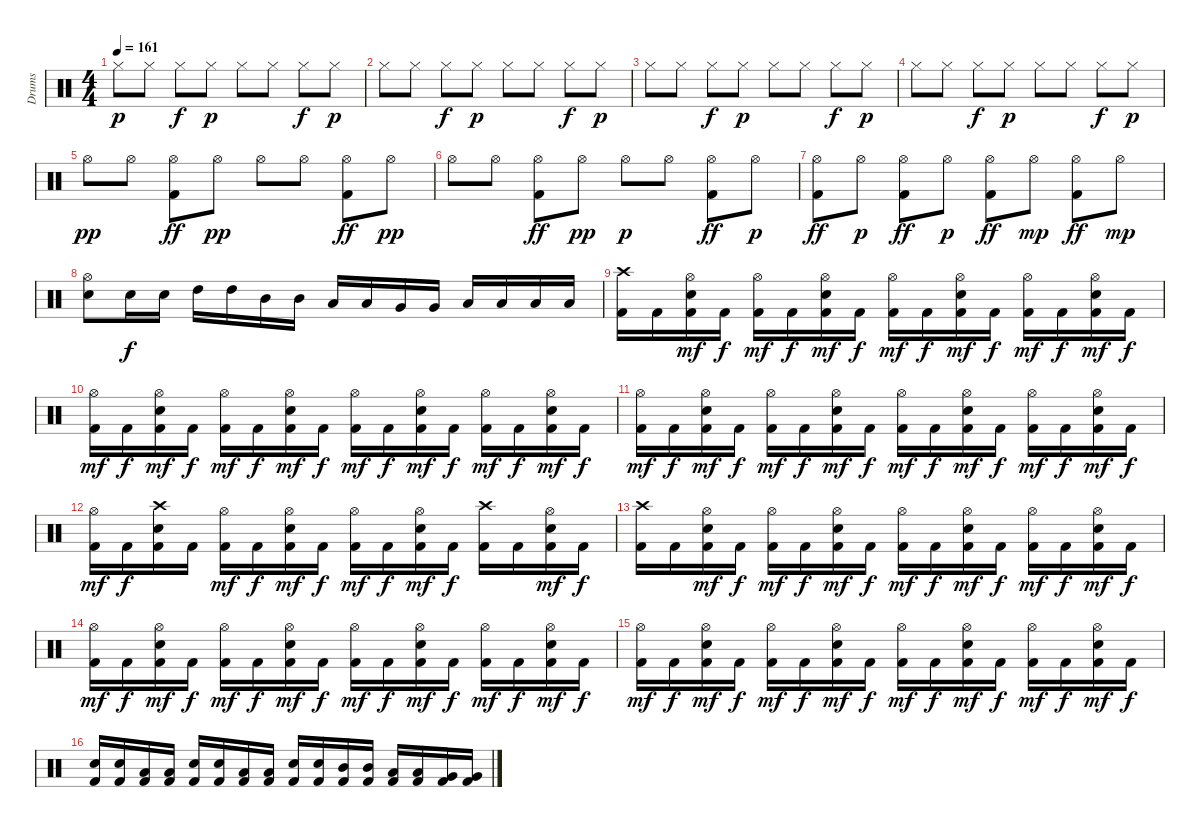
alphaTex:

\track ("Drums" "Drums") {instrument percussion}
\staff {score}
\articulation defaults
\ts (4 4)
\tempo 161
\clef neutral
\ks c "Hi-Hat (closed)".8{dy p} "Hi-Hat (closed)".8 "Hi-Hat (closed)".8{dy f} "Hi-Hat (closed)".8{dy p} "Hi-Hat (closed)".8 "Hi-Hat (closed)".8 "Hi-Hat (closed)".8{dy f} "Hi-Hat (closed)".8{dy p}
|
"Hi-Hat (closed)".8 "Hi-Hat (closed)".8 "Hi-Hat (closed)".8{dy f} "Hi-Hat (closed)".8{dy p} "Hi-Hat (closed)".8 "Hi-Hat (closed)".8 "Hi-Hat (closed)".8{dy f} "Hi-Hat (closed)".8{dy p} |
"Hi-Hat (closed)".8 "Hi-Hat (closed)".8 "Hi-Hat (closed)".8{dy f} "Hi-Hat (closed)".8{dy p} "Hi-Hat (closed)".8 "Hi-Hat (closed)".8 "Hi-Hat (closed)".8{dy f} "Hi-Hat (closed)".8{dy p} |
"Hi-Hat (closed)".8 "Hi-Hat (closed)".8 "Hi-Hat (closed)".8{dy f} "Hi-Hat (closed)".8{dy p} "Hi-Hat (closed)".8 "Hi-Hat (closed)".8 "Hi-Hat (closed)".8{dy f} "Hi-Hat (closed)".8{dy p} |
"Hi-Hat (open)".8{dy pp} "Hi-Hat (open)".8 ("Hi-Hat (open)" "Kick (hit) 2").8{dy ff} "Hi-Hat (open)".8{dy pp} "Hi-Hat (open)".8 "Hi-Hat (open)".8 ("Hi-Hat (open)" "Kick (hit) 2").8{dy ff} "Hi-Hat (open)".8{dy pp} |
"Hi-Hat (open)".8 "Hi-Hat (open)".8 ("Hi-Hat (open)" "Kick (hit) 2").8{dy ff} "Hi-Hat (open)".8{dy pp} "Hi-Hat (open)".8{dy p} "Hi-Hat (open)".8 ("Hi-Hat (open)" "Kick (hit) 2").8{dy ff} "Hi-Hat (open)".8{dy p} |
("Hi-Hat (open)" "Kick (hit) 2").8{dy ff} "Hi-Hat (open)".8{dy p} ("Hi-Hat (open)" "Kick (hit) 2").8{dy ff} "Hi-Hat (open)".8{dy p} ("Hi-Hat (open)" "Kick (hit) 2").8{dy ff} "Hi-Hat (open)".8{dy mp} ("Hi-Hat (open)" "Kick (hit) 2").8{dy ff} "Hi-Hat (open)".8{dy mp} |
("Hi-Hat (open)" "Electric Snare (hit)").8 "Electric Snare (hit)".16{dy f} "Electric Snare (hit)".16 "High Tom (hit)".16 "High Tom (hit)".16 "Mid Tom (hit)".16 "Mid Tom (hit)".16 "Low Tom (hit)".16 "Low Tom (hit)".16 "Very Low Tom (hit)".16 "Very Low Tom (hit)".16 "Low Floor Tom (hit)".16 "Low Floor Tom (hit)".16 "Low Floor Tom (hit)".16 "Low Floor Tom (hit)".16 |
("Crash high (hit)" "Kick (hit) 2").16 "Kick (hit) 2".16 ("Hi-Hat (open)" "Electric Snare (hit)" "Kick (hit) 2").16{dy mf} "Kick (hit) 2".16{dy f} ("Hi-Hat (open)" "Kick (hit) 2").16{dy mf} "Kick (hit) 2".16{dy f} ("Hi-Hat (open)" "Electric Snare (hit)" "Kick (hit) 2").16{dy mf} "Kick (hit) 2".16{dy f} ("Hi-Hat (open)" "Kick (hit) 2").16{dy mf} "Kick (hit) 2".16{dy f} ("Hi-Hat (open)" "Electric Snare (hit)" "Kick (hit) 2").16{dy mf} "Kick (hit) 2".16{dy f} ("Hi-Hat (open)" "Kick (hit) 2").16{dy mf} "Kick (hit) 2".16{dy f} ("Hi-Hat (open)" "Electric Snare (hit)" "Kick (hit) 2").16{dy mf} "Kick (hit) 2".16{dy f} |
("Hi-Hat (open)" "Kick (hit) 2").16{dy mf} "Kick (hit) 2".16{dy f} ("Hi-Hat (open)" "Electric Snare (hit)" "Kick (hit) 2").16{dy mf} "Kick (hit) 2".16{dy f} ("Hi-Hat (open)" "Kick (hit) 2").16{dy mf} "Kick (hit) 2".16{dy f} ("Hi-Hat (open)" "Electric Snare (hit)" "Kick (hit) 2").16{dy mf} "Kick (hit) 2".16{dy f} ("Hi-Hat (open)" "Kick (hit) 2").16{dy mf} "Kick (hit) 2".16{dy f} ("Hi-Hat (open)" "Electric Snare (hit)" "Kick (hit) 2").16{dy mf} "Kick (hit) 2".16{dy f} ("Hi-Hat (open)" "Kick (hit) 2").16{dy mf} "Kick (hit) 2".16{dy f} ("Hi-Hat (open)" "Electric Snare (hit)" "Kick (hit) 2").16{dy mf} "Kick (hit) 2".16{dy f} |
("Hi-Hat (open)" "Kick (hit) 2").16{dy mf} "Kick (hit) 2".16{dy f} ("Hi-Hat (open)" "Electric Snare (hit)" "Kick (hit) 2").16{dy mf} "Kick (hit) 2".16{dy f} ("Hi-Hat (open)" "Kick (hit) 2").16{dy mf} "Kick (hit) 2".16{dy f} ("Hi-Hat (open)" "Electric Snare (hit)" "Kick (hit) 2").16{dy mf} "Kick (hit) 2".16{dy f} ("Hi-Hat (open)" "Kick (hit) 2").16{dy mf} "Kick (hit) 2".16{dy f} ("Hi-Hat (open)" "Electric Snare (hit)" "Kick (hit) 2").16{dy mf} "Kick (hit) 2".16{dy f} ("Hi-Hat (open)" "Kick (hit) 2").16{dy mf} "Kick (hit) 2".16{dy f} ("Hi-Hat (open)" "Electric Snare (hit)" "Kick (hit) 2").16{dy mf} "Kick (hit) 2".16{dy f} |
("Hi-Hat (open)" "Kick (hit) 2").16{dy mf} "Kick (hit) 2".16{dy f} ("Crash high (hit)" "Electric Snare (hit)" "Kick (hit) 2").16 "Kick (hit) 2".16 ("Hi-Hat (open)" "Kick (hit) 2").16{dy mf} "Kick (hit) 2".16{dy f} ("Hi-Hat (open)" "Electric Snare (hit)" "Kick (hit) 2").16{dy mf} "Kick (hit) 2".16{dy f} ("Hi-Hat (open)" "Kick (hit) 2").16{dy mf} "Kick (hit) 2".16{dy f} ("Hi-Hat (open)" "Electric Snare (hit)" "Kick (hit) 2").16{dy mf} "Kick (hit) 2".16{dy f} ("Crash high (hit)" "Kick (hit) 2").16 "Kick (hit) 2".16 ("Hi-Hat (open)" "Electric Snare (hit)" "Kick (hit) 2").16{dy mf} "Kick (hit) 2".16{dy f} |
("Crash high (hit)" "Kick (hit) 2").16 "Kick (hit) 2".16 ("Hi-Hat (open)" "Electric Snare (hit)" "Kick (hit) 2").16{dy mf} "Kick (hit) 2".16{dy f} ("Hi-Hat (open)" "Kick (hit) 2").16{dy mf} "Kick (hit) 2".16{dy f} ("Hi-Hat (open)" "Electric Snare (hit)" "Kick (hit) 2").16{dy mf} "Kick (hit) 2".16{dy f} ("Hi-Hat (open)" "Kick (hit) 2").16{dy mf} "Kick (hit) 2".16{dy f} ("Hi-Hat (open)" "Electric Snare (hit)" "Kick (hit) 2").16{dy mf} "Kick (hit) 2".16{dy f} ("Hi-Hat (open)" "Kick (hit) 2").16{dy mf} "Kick (hit) 2".16{dy f} ("Hi-Hat (open)" "Electric Snare (hit)" "Kick (hit) 2").16{dy mf} "Kick (hit) 2".16{dy f} |
("Hi-Hat (open)" "Kick (hit) 2").16{dy mf} "Kick (hit) 2".16{dy f} ("Hi-Hat (open)" "Electric Snare (hit)" "Kick (hit) 2").16{dy mf} "Kick (hit) 2".16{dy f} ("Hi-Hat (open)" "Kick (hit) 2").16{dy mf} "Kick (hit) 2".16{dy f} ("Hi-Hat (open)" "Electric Snare (hit)" "Kick (hit) 2").16{dy mf} "Kick (hit) 2".16{dy f} ("Hi-Hat (open)" "Kick (hit) 2").16{dy mf} "Kick (hit) 2".16{dy f} ("Hi-Hat (open)" "Electric Snare (hit)" "Kick (hit) 2").16{dy mf} "Kick (hit) 2".16{dy f} ("Hi-Hat (open)" "Kick (hit) 2").16{dy mf} "Kick (hit) 2".16{dy f} ("Hi-Hat (open)" "Electric Snare (hit)" "Kick (hit) 2").16{dy mf} "Kick (hit) 2".16{dy f} |
("Hi-Hat (open)" "Kick (hit) 2").16{dy mf} "Kick (hit) 2".16{dy f} ("Hi-Hat (open)" "Electric Snare (hit)" "Kick (hit) 2").16{dy mf} "Kick (hit) 2".16{dy f} ("Hi-Hat (open)" "Kick (hit) 2").16{dy mf} "Kick (hit) 2".16{dy f} ("Hi-Hat (open)" "Electric Snare (hit)" "Kick (hit) 2").16{dy mf} "Kick (hit) 2".16{dy f} ("Hi-Hat (open)" "Kick (hit) 2").16{dy mf} "Kick (hit) 2".16{dy f} ("Hi-Hat (open)" "Electric Snare (hit)" "Kick (hit) 2").16{dy mf} "Kick (hit) 2".16{dy f} ("Hi-Hat (open)" "Kick (hit) 2").16{dy mf} "Kick (hit) 2".16{dy f} ("Hi-Hat (open)" "Electric Snare (hit)" "Kick (hit) 2").16{dy mf} "Kick (hit) 2".16{dy f} |
("Electric Snare (hit)" "Kick (hit) 2").16 ("Electric Snare (hit)" "Kick (hit) 2").16 ("Low Floor Tom (hit)" "Kick (hit) 2").16 ("Low Floor Tom (hit)" "Kick (hit) 2").16 ("Electric Snare (hit)" "Kick (hit) 2").16 ("Electric Snare (hit)" "Kick (hit) 2").16 ("Low Floor Tom (hit)" "Kick (hit) 2").16 ("Low Floor Tom (hit)" "Kick (hit) 2").16 ("Electric Snare (hit)" "Kick (hit) 2").16 ("Electric Snare (hit)" "Kick (hit) 2").16 ("Mid Tom (hit)" "Kick (hit) 2").16 ("Mid Tom (hit)" "Kick (hit) 2").16 ("Low Tom (hit)" "Kick (hit) 2").16 ("Low Tom (hit)" "Kick (hit) 2").16 ("Very Low Tom (hit)" "Kick (hit) 2").16 ("Very Low Tom (hit)" "Kick (hit) 2").16
